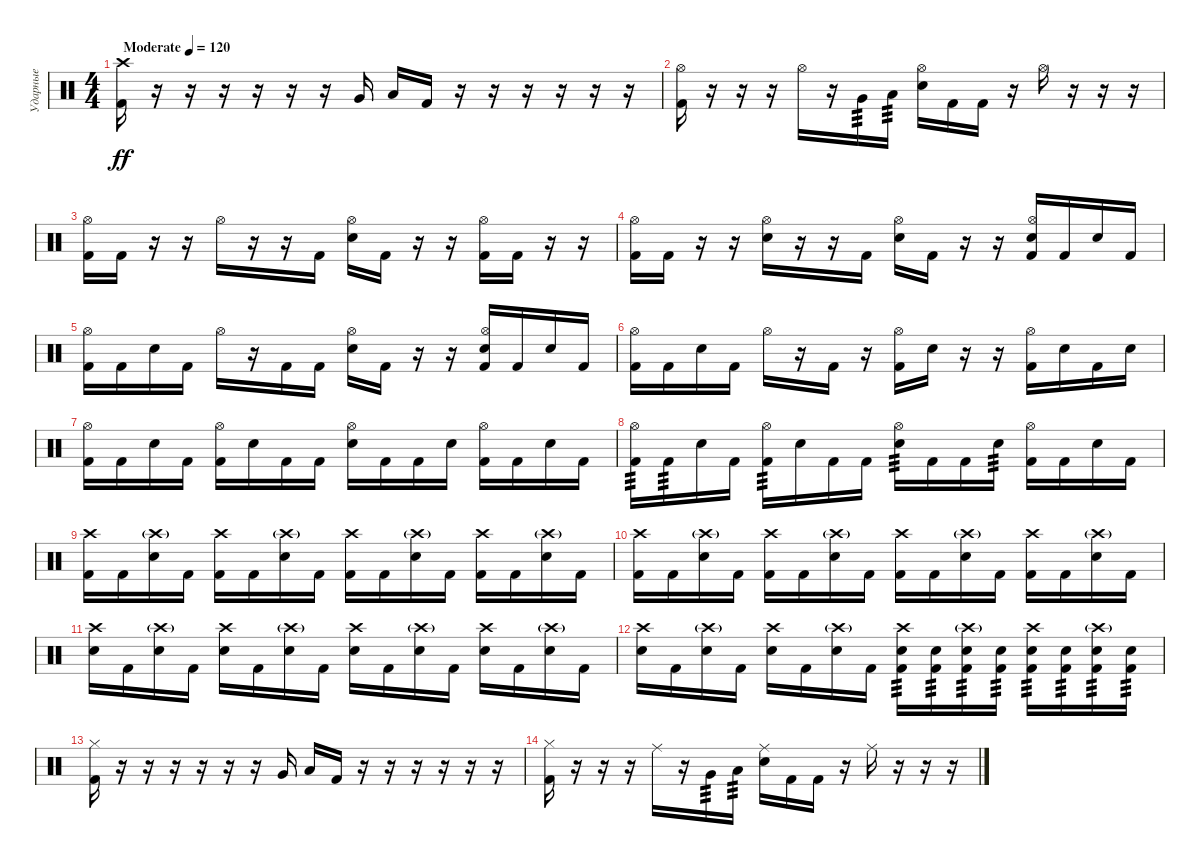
\track ("Ударные" "Ударные") {instrument percussion}
\staff {score}
\articulation defaults
\ts (4 4)
\tempo (120 "Moderate")
\clef neutral
\ks c
("Crash high (hit)" "Kick (hit) 2").16{dy ff} r.16 r.16 r.16 r.16 r.16 r.16 "Very Low Tom (hit)".16 "Low Floor Tom (hit)".16 "Kick (hit) 2".16 r.16 r.16 r.16 r.16 r.16 r.16 |
("Hi-Hat (open)" "Kick (hit) 2").16 r.16 r.16 r.16 "Hi-Hat (open)".16 r.16 "Very Low Tom (hit)".16{tp 3} "Low Floor Tom (hit)".16{tp 3} ("Hi-Hat (open)" "Snare (hit) 2").16 "Kick (hit) 2".16 "Kick (hit) 2".16 r.16 "Hi-Hat (open)".16 r.16 r.16 r.16 |
("Hi-Hat (open)" "Kick (hit) 2").16 "Kick (hit) 2".16 r.16 r.16 "Hi-Hat (open)".16 r.16 r.16 "Kick (hit) 2".16 ("Hi-Hat (open)" "Snare (hit) 2").16 "Kick (hit) 2".16 r.16 r.16 ("Hi-Hat (open)" "Kick (hit) 2").16 "Kick (hit) 2".16 r.16 r.16 |
("Hi-Hat (open)" "Kick (hit) 2").16 "Kick (hit) 2".16 r.16 r.16 ("Hi-Hat (open)" "Snare (hit) 2").16 r.16 r.16 "Kick (hit) 2".16 ("Hi-Hat (open)" "Snare (hit) 2").16 "Kick (hit) 2".16 r.16 r.16 ("Hi-Hat (open)" "Snare (hit) 2" "Kick (hit) 2").16 "Kick (hit) 2".16 "Snare (hit) 2".16 "Kick (hit) 2".16 |
("Hi-Hat (open)" "Kick (hit) 2").16 "Kick (hit) 2".16 "Snare (hit) 2".16 "Kick (hit) 2".16 "Hi-Hat (open)".16 r.16 "Kick (hit) 2".16 "Kick (hit) 2".16 ("Hi-Hat (open)" "Snare (hit) 2").16 "Kick (hit) 2".16 r.16 r.16 ("Hi-Hat (open)" "Snare (hit) 2" "Kick (hit) 2").16 "Kick (hit) 2".16 "Snare (hit) 2".16 "Kick (hit) 2".16 |
("Hi-Hat (open)" "Kick (hit) 2").16 "Kick (hit) 2".16 "Snare (hit) 2".16 "Kick (hit) 2".16 "Hi-Hat (open)".16 r.16 "Kick (hit) 2".16 r.16 ("Hi-Hat (open)" "Kick (hit) 2").16 "Snare (hit) 2".16 r.16 r.16 ("Hi-Hat (open)" "Kick (hit) 2").16 "Snare (hit) 2".16 "Kick (hit) 2".16 "Snare (hit) 2".16 |
("Hi-Hat (open)" "Kick (hit) 2").16 "Kick (hit) 2".16 "Snare (hit) 2".16 "Kick (hit) 2".16 ("Hi-Hat (open)" "Kick (hit) 2").16 "Snare (hit) 2".16 "Kick (hit) 2".16 "Kick (hit) 2".16 ("Hi-Hat (open)" "Snare (hit) 2").16 "Kick (hit) 2".16 "Kick (hit) 2".16 "Snare (hit) 2".16 ("Hi-Hat (open)" "Kick (hit) 2").16 "Kick (hit) 2".16 "Snare (hit) 2".16 "Kick (hit) 2".16 |
("Hi-Hat (open)" "Kick (hit) 2").16{tp 3} "Kick (hit) 2".16{tp 3} "Snare (hit) 2".16 "Kick (hit) 2".16 ("Hi-Hat (open)" "Kick (hit) 2").16{tp 3} "Snare (hit) 2".16 "Kick (hit) 2".16 "Kick (hit) 2".16 ("Hi-Hat (open)" "Snare (hit) 2").16{tp 3} "Kick (hit) 2".16 "Kick (hit) 2".16 "Snare (hit) 2".16{tp 3} ("Hi-Hat (open)" "Kick (hit) 2").16 "Kick (hit) 2".16 "Snare (hit) 2".16 "Kick (hit) 2".16 |
("Crash high (hit)" "Kick (hit) 2").16 "Kick (hit) 2".16 ("Crash high (hit)"{g} "Snare (hit) 2").16 "Kick (hit) 2".16 ("Crash high (hit)" "Kick (hit) 2").16 "Kick (hit) 2".16 ("Crash high (hit)"{g} "Snare (hit) 2").16 "Kick (hit) 2".16 ("Crash high (hit)" "Kick (hit) 2").16 "Kick (hit) 2".16 ("Crash high (hit)"{g} "Snare (hit) 2").16 "Kick (hit) 2".16 ("Crash high (hit)" "Kick (hit) 2").16 "Kick (hit) 2".16 ("Crash high (hit)"{g} "Snare (hit) 2").16 "Kick (hit) 2".16 |
("Crash high (hit)" "Kick (hit) 2").16 "Kick (hit) 2".16 ("Crash high (hit)"{g} "Snare (hit) 2").16 "Kick (hit) 2".16 ("Crash high (hit)" "Kick (hit) 2").16 "Kick (hit) 2".16 ("Crash high (hit)"{g} "Snare (hit) 2").16 "Kick (hit) 2".16 ("Crash high (hit)" "Kick (hit) 2").16 "Kick (hit) 2".16 ("Crash high (hit)"{g} "Snare (hit) 2").16 "Kick (hit) 2".16 ("Crash high (hit)" "Kick (hit) 2").16 "Kick (hit) 2".16 ("Crash high (hit)"{g} "Snare (hit) 2").16 "Kick (hit) 2".16 |
("Crash high (hit)" "Snare (hit) 2").16 "Kick (hit) 2".16 ("Crash high (hit)"{g} "Snare (hit) 2").16 "Kick (hit) 2".16 ("Crash high (hit)" "Snare (hit) 2").16 "Kick (hit) 2".16 ("Crash high (hit)"{g} "Snare (hit) 2").16 "Kick (hit) 2".16 ("Crash high (hit)" "Snare (hit) 2").16 "Kick (hit) 2".16 ("Crash high (hit)"{g} "Snare (hit) 2").16 "Kick (hit) 2".16 ("Crash high (hit)" "Snare (hit) 2").16 "Kick (hit) 2".16 ("Crash high (hit)"{g} "Snare (hit) 2").16 "Kick (hit) 2".16 |
("Crash high (hit)" "Snare (hit) 2").16 "Kick (hit) 2".16 ("Crash high (hit)"{g} "Snare (hit) 2").16 "Kick (hit) 2".16 ("Crash high (hit)" "Snare (hit) 2").16 "Kick (hit) 2".16 ("Crash high (hit)"{g} "Snare (hit) 2").16 "Kick (hit) 2".16 ("Crash high (hit)" "Snare (hit) 2" "Kick (hit) 2").16{tp 3} ("Snare (hit) 2" "Kick (hit) 2").16{tp 3} ("Crash high (hit)"{g} "Snare (hit) 2" "Kick (hit) 2").16{tp 3} ("Snare (hit) 2" "Kick (hit) 2").16{tp 3} ("Crash high (hit)" "Snare (hit) 2" "Kick (hit) 2").16{tp 3} ("Snare (hit) 2" "Kick (hit) 2").16{tp 3} ("Crash high (hit)"{g} "Snare (hit) 2" "Kick (hit) 2").16{tp 3} ("Snare (hit) 2" "Kick (hit) 2").16{tp 3} |
("Hi-Hat (closed)" "Kick (hit) 2").16{volume 0} r.16 r.16 r.16 r.16 r.16 r.16 "Very Low Tom (hit)".16 "Low Floor Tom (hit)".16 "Kick (hit) 2".16 r.16 r.16 r.16 r.16 r.16 r.16 |
("Hi-Hat (closed)" "Kick (hit) 2").16 r.16 r.16 r.16 "Ride (middle)".16 r.16 "Very Low Tom (hit)".16{tp 3} "Low Floor Tom (hit)".16{tp 3} ("Ride (middle)" "Snare (hit) 2").16 "Kick (hit) 2".16 "Kick (hit) 2".16 r.16 "Ride (middle)".16 r.16 r.16 r.16
